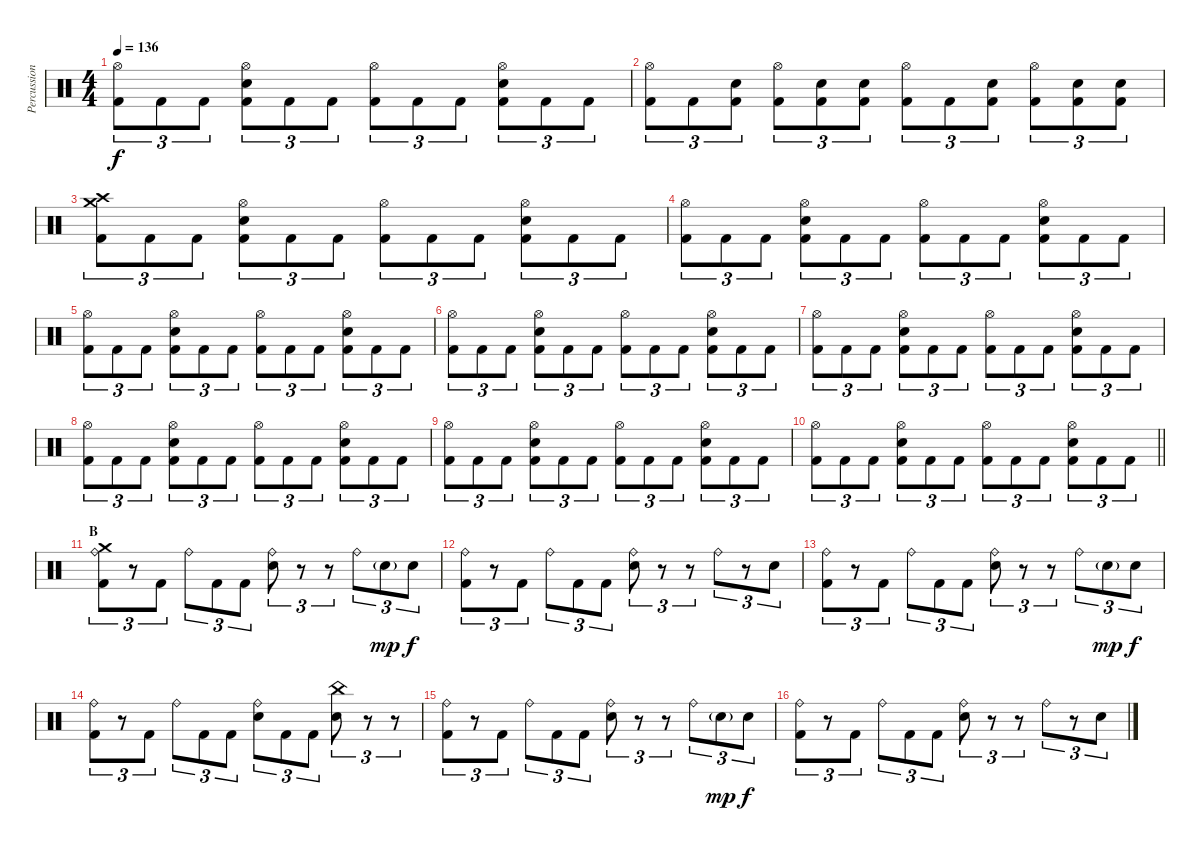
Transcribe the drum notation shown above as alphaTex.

\track ("Percussion" "Percussion") {instrument percussion}
\staff {score}
\articulation defaults
\ts (4 4)
\tempo 136
\clef neutral
\ks c
("Hi-Hat (open)" "Kick (hit) 2").8{tu (3 2) dy f} "Kick (hit) 2".8{tu (3 2)} "Kick (hit) 2".8{tu (3 2)} ("Hi-Hat (open)" "Electric Snare (hit)" "Kick (hit) 2").8{tu (3 2)} "Kick (hit) 2".8{tu (3 2)} "Kick (hit) 2".8{tu (3 2)} ("Hi-Hat (open)" "Kick (hit) 2").8{tu (3 2)} "Kick (hit) 2".8{tu (3 2)} "Kick (hit) 2".8{tu (3 2)} ("Hi-Hat (open)" "Electric Snare (hit)" "Kick (hit) 2").8{tu (3 2)} "Kick (hit) 2".8{tu (3 2)} "Kick (hit) 2".8{tu (3 2)} |
("Hi-Hat (open)" "Kick (hit) 2").8{tu (3 2)} "Kick (hit) 2".8{tu (3 2)} ("Electric Snare (hit)" "Kick (hit) 2").8{tu (3 2)} ("Hi-Hat (open)" "Kick (hit) 2").8{tu (3 2)} ("Electric Snare (hit)" "Kick (hit) 2").8{tu (3 2)} ("Electric Snare (hit)" "Kick (hit) 2").8{tu (3 2)} ("Hi-Hat (open)" "Kick (hit) 2").8{tu (3 2)} "Kick (hit) 2".8{tu (3 2)} ("Electric Snare (hit)" "Kick (hit) 2").8{tu (3 2)} ("Hi-Hat (open)" "Kick (hit) 2").8{tu (3 2)} ("Electric Snare (hit)" "Kick (hit) 2").8{tu (3 2)} ("Electric Snare (hit)" "Kick (hit) 2").8{tu (3 2)} |
("Crash medium (hit)" "Crash high (hit)" "Kick (hit) 2").8{tu (3 2)} "Kick (hit) 2".8{tu (3 2)} "Kick (hit) 2".8{tu (3 2)} ("Hi-Hat (open)" "Electric Snare (hit)" "Kick (hit) 2").8{tu (3 2)} "Kick (hit) 2".8{tu (3 2)} "Kick (hit) 2".8{tu (3 2)} ("Hi-Hat (open)" "Kick (hit) 2").8{tu (3 2)} "Kick (hit) 2".8{tu (3 2)} "Kick (hit) 2".8{tu (3 2)} ("Hi-Hat (open)" "Electric Snare (hit)" "Kick (hit) 2").8{tu (3 2)} "Kick (hit) 2".8{tu (3 2)} "Kick (hit) 2".8{tu (3 2)} |
("Hi-Hat (open)" "Kick (hit) 2").8{tu (3 2)} "Kick (hit) 2".8{tu (3 2)} "Kick (hit) 2".8{tu (3 2)} ("Hi-Hat (open)" "Electric Snare (hit)" "Kick (hit) 2").8{tu (3 2)} "Kick (hit) 2".8{tu (3 2)} "Kick (hit) 2".8{tu (3 2)} ("Hi-Hat (open)" "Kick (hit) 2").8{tu (3 2)} "Kick (hit) 2".8{tu (3 2)} "Kick (hit) 2".8{tu (3 2)} ("Hi-Hat (open)" "Electric Snare (hit)" "Kick (hit) 2").8{tu (3 2)} "Kick (hit) 2".8{tu (3 2)} "Kick (hit) 2".8{tu (3 2)} |
("Hi-Hat (open)" "Kick (hit) 2").8{tu (3 2)} "Kick (hit) 2".8{tu (3 2)} "Kick (hit) 2".8{tu (3 2)} ("Hi-Hat (open)" "Electric Snare (hit)" "Kick (hit) 2").8{tu (3 2)} "Kick (hit) 2".8{tu (3 2)} "Kick (hit) 2".8{tu (3 2)} ("Hi-Hat (open)" "Kick (hit) 2").8{tu (3 2)} "Kick (hit) 2".8{tu (3 2)} "Kick (hit) 2".8{tu (3 2)} ("Hi-Hat (open)" "Electric Snare (hit)" "Kick (hit) 2").8{tu (3 2)} "Kick (hit) 2".8{tu (3 2)} "Kick (hit) 2".8{tu (3 2)} |
("Hi-Hat (open)" "Kick (hit) 2").8{tu (3 2)} "Kick (hit) 2".8{tu (3 2)} "Kick (hit) 2".8{tu (3 2)} ("Hi-Hat (open)" "Electric Snare (hit)" "Kick (hit) 2").8{tu (3 2)} "Kick (hit) 2".8{tu (3 2)} "Kick (hit) 2".8{tu (3 2)} ("Hi-Hat (open)" "Kick (hit) 2").8{tu (3 2)} "Kick (hit) 2".8{tu (3 2)} "Kick (hit) 2".8{tu (3 2)} ("Hi-Hat (open)" "Electric Snare (hit)" "Kick (hit) 2").8{tu (3 2)} "Kick (hit) 2".8{tu (3 2)} "Kick (hit) 2".8{tu (3 2)} |
("Hi-Hat (open)" "Kick (hit) 2").8{tu (3 2)} "Kick (hit) 2".8{tu (3 2)} "Kick (hit) 2".8{tu (3 2)} ("Hi-Hat (open)" "Electric Snare (hit)" "Kick (hit) 2").8{tu (3 2)} "Kick (hit) 2".8{tu (3 2)} "Kick (hit) 2".8{tu (3 2)} ("Hi-Hat (open)" "Kick (hit) 2").8{tu (3 2)} "Kick (hit) 2".8{tu (3 2)} "Kick (hit) 2".8{tu (3 2)} ("Hi-Hat (open)" "Electric Snare (hit)" "Kick (hit) 2").8{tu (3 2)} "Kick (hit) 2".8{tu (3 2)} "Kick (hit) 2".8{tu (3 2)} |
("Hi-Hat (open)" "Kick (hit) 2").8{tu (3 2)} "Kick (hit) 2".8{tu (3 2)} "Kick (hit) 2".8{tu (3 2)} ("Hi-Hat (open)" "Electric Snare (hit)" "Kick (hit) 2").8{tu (3 2)} "Kick (hit) 2".8{tu (3 2)} "Kick (hit) 2".8{tu (3 2)} ("Hi-Hat (open)" "Kick (hit) 2").8{tu (3 2)} "Kick (hit) 2".8{tu (3 2)} "Kick (hit) 2".8{tu (3 2)} ("Hi-Hat (open)" "Electric Snare (hit)" "Kick (hit) 2").8{tu (3 2)} "Kick (hit) 2".8{tu (3 2)} "Kick (hit) 2".8{tu (3 2)} |
("Hi-Hat (open)" "Kick (hit) 2").8{tu (3 2)} "Kick (hit) 2".8{tu (3 2)} "Kick (hit) 2".8{tu (3 2)} ("Hi-Hat (open)" "Electric Snare (hit)" "Kick (hit) 2").8{tu (3 2)} "Kick (hit) 2".8{tu (3 2)} "Kick (hit) 2".8{tu (3 2)} ("Hi-Hat (open)" "Kick (hit) 2").8{tu (3 2)} "Kick (hit) 2".8{tu (3 2)} "Kick (hit) 2".8{tu (3 2)} ("Hi-Hat (open)" "Electric Snare (hit)" "Kick (hit) 2").8{tu (3 2)} "Kick (hit) 2".8{tu (3 2)} "Kick (hit) 2".8{tu (3 2)} |
\barLineRight lightlight
("Hi-Hat (open)" "Kick (hit) 2").8{tu (3 2)} "Kick (hit) 2".8{tu (3 2)} "Kick (hit) 2".8{tu (3 2)} ("Hi-Hat (open)" "Electric Snare (hit)" "Kick (hit) 2").8{tu (3 2)} "Kick (hit) 2".8{tu (3 2)} "Kick (hit) 2".8{tu (3 2)} ("Hi-Hat (open)" "Kick (hit) 2").8{tu (3 2)} "Kick (hit) 2".8{tu (3 2)} "Kick (hit) 2".8{tu (3 2)} ("Hi-Hat (open)" "Electric Snare (hit)" "Kick (hit) 2").8{tu (3 2)} "Kick (hit) 2".8{tu (3 2)} "Kick (hit) 2".8{tu (3 2)} |
\section ("" "B")
("Crash medium (hit)" "Ride (bell)" "Kick (hit) 2").8{tu (3 2)} r.8{tu (3 2)} "Kick (hit) 2".8{tu (3 2)} "Ride (bell)".8{tu (3 2)} "Kick (hit) 2".8{tu (3 2)} "Kick (hit) 2".8{tu (3 2)} ("Ride (bell)" "Electric Snare (hit)").8{tu (3 2)} r.8{tu (3 2)} r.8{tu (3 2)} "Ride (bell)".8{tu (3 2)} "Electric Snare (hit)"{g}.8{tu (3 2) dy mp} "Electric Snare (hit)".8{tu (3 2) dy f} |
("Ride (bell)" "Kick (hit) 2").8{tu (3 2)} r.8{tu (3 2)} "Kick (hit) 2".8{tu (3 2)} "Ride (bell)".8{tu (3 2)} "Kick (hit) 2".8{tu (3 2)} "Kick (hit) 2".8{tu (3 2)} ("Ride (bell)" "Electric Snare (hit)").8{tu (3 2)} r.8{tu (3 2)} r.8{tu (3 2)} "Ride (bell)".8{tu (3 2)} r.8{tu (3 2)} "Electric Snare (hit)".8{tu (3 2)} |
("Ride (bell)" "Kick (hit) 2").8{tu (3 2)} r.8{tu (3 2)} "Kick (hit) 2".8{tu (3 2)} "Ride (bell)".8{tu (3 2)} "Kick (hit) 2".8{tu (3 2)} "Kick (hit) 2".8{tu (3 2)} ("Ride (bell)" "Electric Snare (hit)").8{tu (3 2)} r.8{tu (3 2)} r.8{tu (3 2)} "Ride (bell)".8{tu (3 2)} "Electric Snare (hit)"{g}.8{tu (3 2) dy mp} "Electric Snare (hit)".8{tu (3 2) dy f} |
("Ride (bell)" "Kick (hit) 2").8{tu (3 2)} r.8{tu (3 2)} "Kick (hit) 2".8{tu (3 2)} "Ride (bell)".8{tu (3 2)} "Kick (hit) 2".8{tu (3 2)} "Kick (hit) 2".8{tu (3 2)} ("Ride (bell)" "Electric Snare (hit)").8{tu (3 2)} "Kick (hit) 2".8{tu (3 2)} "Kick (hit) 2".8{tu (3 2)} ("China (hit)" "Electric Snare (hit)").8{tu (3 2)} r.8{tu (3 2)} r.8{tu (3 2)} |
("Ride (bell)" "Kick (hit) 2").8{tu (3 2)} r.8{tu (3 2)} "Kick (hit) 2".8{tu (3 2)} "Ride (bell)".8{tu (3 2)} "Kick (hit) 2".8{tu (3 2)} "Kick (hit) 2".8{tu (3 2)} ("Ride (bell)" "Electric Snare (hit)").8{tu (3 2)} r.8{tu (3 2)} r.8{tu (3 2)} "Ride (bell)".8{tu (3 2)} "Electric Snare (hit)"{g}.8{tu (3 2) dy mp} "Electric Snare (hit)".8{tu (3 2) dy f} |
("Ride (bell)" "Kick (hit) 2").8{tu (3 2)} r.8{tu (3 2)} "Kick (hit) 2".8{tu (3 2)} "Ride (bell)".8{tu (3 2)} "Kick (hit) 2".8{tu (3 2)} "Kick (hit) 2".8{tu (3 2)} ("Ride (bell)" "Electric Snare (hit)").8{tu (3 2)} r.8{tu (3 2)} r.8{tu (3 2)} "Ride (bell)".8{tu (3 2)} r.8{tu (3 2)} "Electric Snare (hit)".8{tu (3 2)}
